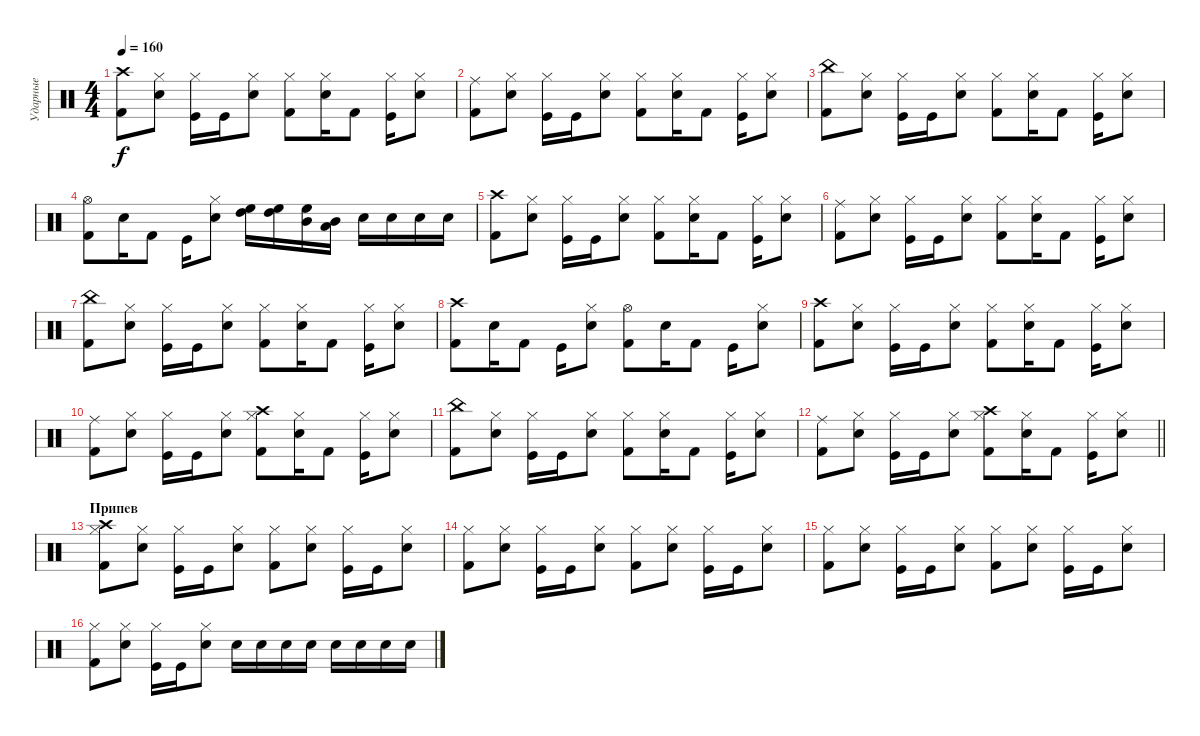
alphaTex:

\track ("Ударные" "Ударные") {instrument percussion}
\staff {score}
\articulation defaults
\ts (4 4)
\tempo 160
\clef neutral
\ks c
("Crash high (hit)" "Kick (hit) 2").8{dy f} ("Hi-Hat (closed)" "Snare (hit) 2").8 ("Hi-Hat (closed)" "Kick (hit)").16 "Kick (hit)".16 ("Hi-Hat (closed)" "Snare (hit) 2").8 ("Hi-Hat (closed)" "Kick (hit) 2").8 ("Hi-Hat (closed)" "Snare (hit) 2").16 "Kick (hit) 2".8 ("Hi-Hat (closed)" "Kick (hit)").16 ("Hi-Hat (closed)" "Snare (hit) 2").8 |
("Ride (middle)" "Kick (hit) 2").8 ("Hi-Hat (closed)" "Snare (hit) 2").8 ("Hi-Hat (closed)" "Kick (hit)").16 "Kick (hit)".16 ("Hi-Hat (closed)" "Snare (hit) 2").8 ("Hi-Hat (closed)" "Kick (hit) 2").8 ("Hi-Hat (closed)" "Snare (hit) 2").16 "Kick (hit) 2".8 ("Hi-Hat (closed)" "Kick (hit)").16 ("Hi-Hat (closed)" "Snare (hit) 2").8 |
("China (hit)" "Kick (hit) 2").8 ("Hi-Hat (closed)" "Snare (hit) 2").8 ("Hi-Hat (closed)" "Kick (hit)").16 "Kick (hit)".16 ("Hi-Hat (closed)" "Snare (hit) 2").8 ("Hi-Hat (closed)" "Kick (hit) 2").8 ("Hi-Hat (closed)" "Snare (hit) 2").16 "Kick (hit) 2".8 ("Hi-Hat (closed)" "Kick (hit)").16 ("Hi-Hat (closed)" "Snare (hit) 2").8 |
("Hi-Hat (open)" "Kick (hit) 2").8 "Snare (hit) 2".16 "Kick (hit) 2".8 "Kick (hit)".16 ("Hi-Hat (closed)" "Snare (hit) 2").8 ("High Tom (hit)" "High Floor Tom (hit)").16 ("High Floor Tom (hit)" "High Tom (hit)").16 ("High Floor Tom (hit)" "Mid Tom (hit)").16 ("Mid Tom (hit)" "Low Tom (hit)").16 "Snare (hit) 2".16 "Snare (hit) 2".16 "Snare (hit) 2".16 "Snare (hit) 2".16 |
("Crash high (hit)" "Kick (hit) 2").8 ("Hi-Hat (closed)" "Snare (hit) 2").8 ("Hi-Hat (closed)" "Kick (hit)").16 "Kick (hit)".16 ("Hi-Hat (closed)" "Snare (hit) 2").8 ("Hi-Hat (closed)" "Kick (hit) 2").8 ("Hi-Hat (closed)" "Snare (hit) 2").16 "Kick (hit) 2".8 ("Hi-Hat (closed)" "Kick (hit)").16 ("Hi-Hat (closed)" "Snare (hit) 2").8 |
("Ride (middle)" "Kick (hit) 2").8 ("Hi-Hat (closed)" "Snare (hit) 2").8 ("Hi-Hat (closed)" "Kick (hit)").16 "Kick (hit)".16 ("Hi-Hat (closed)" "Snare (hit) 2").8 ("Hi-Hat (closed)" "Kick (hit) 2").8 ("Hi-Hat (closed)" "Snare (hit) 2").16 "Kick (hit) 2".8 ("Hi-Hat (closed)" "Kick (hit)").16 ("Hi-Hat (closed)" "Snare (hit) 2").8 |
("China (hit)" "Kick (hit) 2").8 ("Hi-Hat (closed)" "Snare (hit) 2").8 ("Hi-Hat (closed)" "Kick (hit)").16 "Kick (hit)".16 ("Hi-Hat (closed)" "Snare (hit) 2").8 ("Hi-Hat (closed)" "Kick (hit) 2").8 ("Hi-Hat (closed)" "Snare (hit) 2").16 "Kick (hit) 2".8 ("Hi-Hat (closed)" "Kick (hit)").16 ("Hi-Hat (closed)" "Snare (hit) 2").8 |
("Crash high (hit)" "Kick (hit) 2").8 "Snare (hit) 2".16 "Kick (hit) 2".8 "Kick (hit)".16 ("Hi-Hat (closed)" "Snare (hit) 2").8 ("Hi-Hat (open)" "Kick (hit) 2").8 "Snare (hit) 2".16 "Kick (hit) 2".8 "Kick (hit)".16 ("Hi-Hat (closed)" "Snare (hit) 2").8 |
("Crash high (hit)" "Kick (hit) 2").8 ("Hi-Hat (closed)" "Snare (hit) 2").8 ("Hi-Hat (closed)" "Kick (hit)").16 "Kick (hit)".16 ("Hi-Hat (closed)" "Snare (hit) 2").8 ("Hi-Hat (closed)" "Kick (hit) 2").8 ("Hi-Hat (closed)" "Snare (hit) 2").16 "Kick (hit) 2".8 ("Hi-Hat (closed)" "Kick (hit)").16 ("Hi-Hat (closed)" "Snare (hit) 2").8 |
("Ride (middle)" "Kick (hit) 2").8 ("Hi-Hat (closed)" "Snare (hit) 2").8 ("Hi-Hat (closed)" "Kick (hit)").16 "Kick (hit)".16 ("Hi-Hat (closed)" "Snare (hit) 2").8 ("Crash high (hit)" "Hi-Hat (closed)" "Kick (hit) 2").8 ("Hi-Hat (closed)" "Snare (hit) 2").16 "Kick (hit) 2".8 ("Hi-Hat (closed)" "Kick (hit)").16 ("Hi-Hat (closed)" "Snare (hit) 2").8 |
("China (hit)" "Kick (hit) 2").8 ("Hi-Hat (closed)" "Snare (hit) 2").8 ("Hi-Hat (closed)" "Kick (hit)").16 "Kick (hit)".16 ("Hi-Hat (closed)" "Snare (hit) 2").8 ("Hi-Hat (closed)" "Kick (hit) 2").8 ("Hi-Hat (closed)" "Snare (hit) 2").16 "Kick (hit) 2".8 ("Hi-Hat (closed)" "Kick (hit)").16 ("Hi-Hat (closed)" "Snare (hit) 2").8 |
\barLineRight lightlight
("Ride (middle)" "Kick (hit) 2").8 ("Hi-Hat (closed)" "Snare (hit) 2").8 ("Hi-Hat (closed)" "Kick (hit)").16 "Kick (hit)".16 ("Hi-Hat (closed)" "Snare (hit) 2").8 ("Crash high (hit)" "Hi-Hat (closed)" "Kick (hit) 2").8 ("Hi-Hat (closed)" "Snare (hit) 2").16 "Kick (hit) 2".8 ("Hi-Hat (closed)" "Kick (hit)").16 ("Hi-Hat (closed)" "Snare (hit) 2").8 |
\section ("" "Припев")
("Crash high (hit)" "Hi-Hat (closed)" "Kick (hit) 2").8 ("Hi-Hat (closed)" "Snare (hit) 2").8 ("Hi-Hat (closed)" "Kick (hit)").16 "Kick (hit)".16 ("Hi-Hat (closed)" "Snare (hit) 2").8 ("Hi-Hat (closed)" "Kick (hit) 2").8 ("Hi-Hat (closed)" "Snare (hit) 2").8 ("Hi-Hat (closed)" "Kick (hit)").16 "Kick (hit)".16 ("Hi-Hat (closed)" "Snare (hit) 2").8 |
("Hi-Hat (closed)" "Kick (hit) 2").8 ("Hi-Hat (closed)" "Snare (hit) 2").8 ("Hi-Hat (closed)" "Kick (hit)").16 "Kick (hit)".16 ("Hi-Hat (closed)" "Snare (hit) 2").8 ("Hi-Hat (closed)" "Kick (hit) 2").8 ("Hi-Hat (closed)" "Snare (hit) 2").8 ("Hi-Hat (closed)" "Kick (hit)").16 "Kick (hit)".16 ("Hi-Hat (closed)" "Snare (hit) 2").8 |
("Hi-Hat (closed)" "Kick (hit) 2").8 ("Hi-Hat (closed)" "Snare (hit) 2").8 ("Hi-Hat (closed)" "Kick (hit)").16 "Kick (hit)".16 ("Hi-Hat (closed)" "Snare (hit) 2").8 ("Hi-Hat (closed)" "Kick (hit) 2").8 ("Hi-Hat (closed)" "Snare (hit) 2").8 ("Hi-Hat (closed)" "Kick (hit)").16 "Kick (hit)".16 ("Hi-Hat (closed)" "Snare (hit) 2").8 |
("Hi-Hat (closed)" "Kick (hit) 2").8 ("Hi-Hat (closed)" "Snare (hit) 2").8 ("Hi-Hat (closed)" "Kick (hit)").16 "Kick (hit)".16 ("Hi-Hat (closed)" "Snare (hit) 2").8 "Snare (hit) 2".16 "Snare (hit) 2".16 "Snare (hit) 2".16 "Snare (hit) 2".16 "Snare (hit) 2".16 "Snare (hit) 2".16 "Snare (hit) 2".16 "Snare (hit) 2".16
